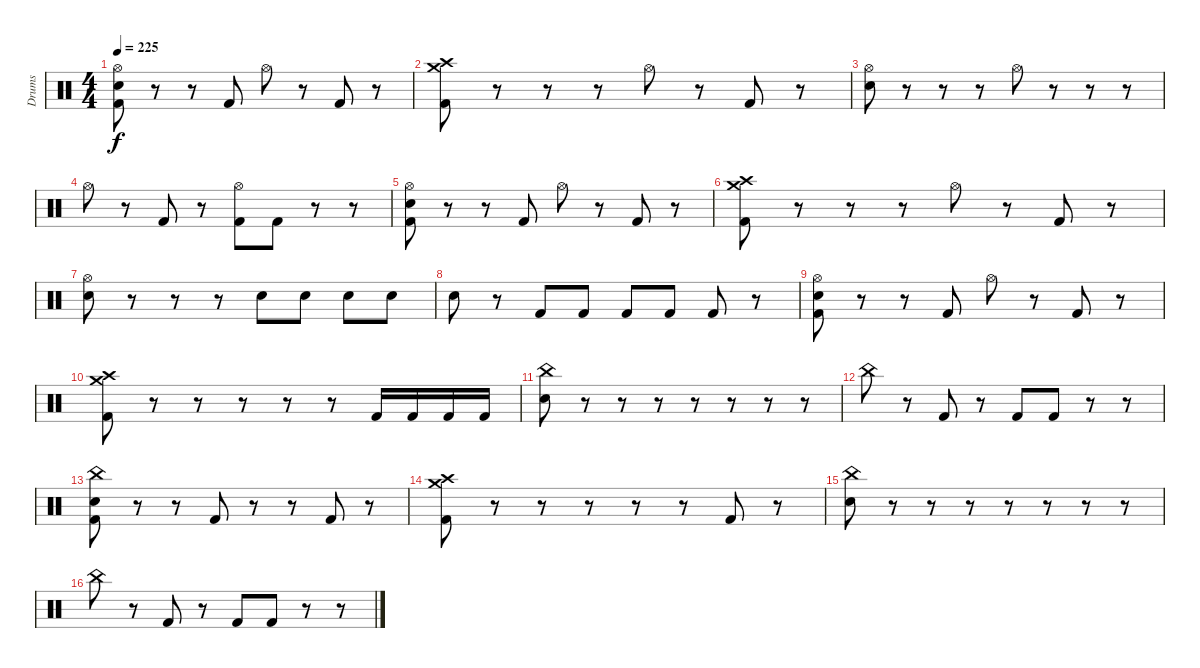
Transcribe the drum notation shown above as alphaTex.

\track ("Drums" "Drums") {instrument percussion}
\staff {score}
\articulation defaults
\ts (4 4)
\tempo 225
\clef neutral
\ks c
("Hi-Hat (open)" "Electric Snare (hit)" "Kick (hit) 2").8{dy f} r.8 r.8 "Kick (hit) 2".8 "Hi-Hat (open)".8 r.8 "Kick (hit) 2".8 r.8 |
("Crash medium (hit)" "Crash high (hit)" "Kick (hit) 2").8 r.8 r.8 r.8 "Hi-Hat (open)".8 r.8 "Kick (hit) 2".8 r.8 |
("Hi-Hat (open)" "Electric Snare (hit)").8 r.8 r.8 r.8 "Hi-Hat (open)".8 r.8 r.8 r.8 |
"Hi-Hat (open)".8 r.8 "Kick (hit) 2".8 r.8 ("Hi-Hat (open)" "Kick (hit) 2").8 "Kick (hit) 2".8 r.8 r.8 |
("Hi-Hat (open)" "Electric Snare (hit)" "Kick (hit) 2").8 r.8 r.8 "Kick (hit) 2".8 "Hi-Hat (open)".8 r.8 "Kick (hit) 2".8 r.8 |
("Crash medium (hit)" "Crash high (hit)" "Kick (hit) 2").8 r.8 r.8 r.8 "Hi-Hat (open)".8 r.8 "Kick (hit) 2".8 r.8 |
("Hi-Hat (open)" "Electric Snare (hit)").8 r.8 r.8 r.8 "Electric Snare (hit)".8 "Electric Snare (hit)".8 "Electric Snare (hit)".8 "Electric Snare (hit)".8 |
"Electric Snare (hit)".8 r.8 "Kick (hit) 2".8 "Kick (hit) 2".8 "Kick (hit) 2".8 "Kick (hit) 2".8 "Kick (hit) 2".8 r.8 |
("Hi-Hat (open)" "Electric Snare (hit)" "Kick (hit) 2").8 r.8 r.8 "Kick (hit) 2".8 "Hi-Hat (open)".8 r.8 "Kick (hit) 2".8 r.8 |
("Crash medium (hit)" "Crash high (hit)" "Kick (hit) 2").8 r.8 r.8 r.8 r.8 r.8 "Kick (hit) 2".16 "Kick (hit) 2".16 "Kick (hit) 2".16 "Kick (hit) 2".16 |
("China (hit)" "Electric Snare (hit)").8 r.8 r.8 r.8 r.8 r.8 r.8 r.8 |
"China (hit)".8 r.8 "Kick (hit) 2".8 r.8 "Kick (hit) 2".8 "Kick (hit) 2".8 r.8 r.8 |
("China (hit)" "Electric Snare (hit)" "Kick (hit) 2").8 r.8 r.8 "Kick (hit) 2".8 r.8 r.8 "Kick (hit) 2".8 r.8 |
("Crash medium (hit)" "Crash high (hit)" "Kick (hit) 2").8 r.8 r.8 r.8 r.8 r.8 "Kick (hit) 2".8 r.8 |
("China (hit)" "Electric Snare (hit)").8 r.8 r.8 r.8 r.8 r.8 r.8 r.8 |
"China (hit)".8 r.8 "Kick (hit) 2".8 r.8 "Kick (hit) 2".8 "Kick (hit) 2".8 r.8 r.8
